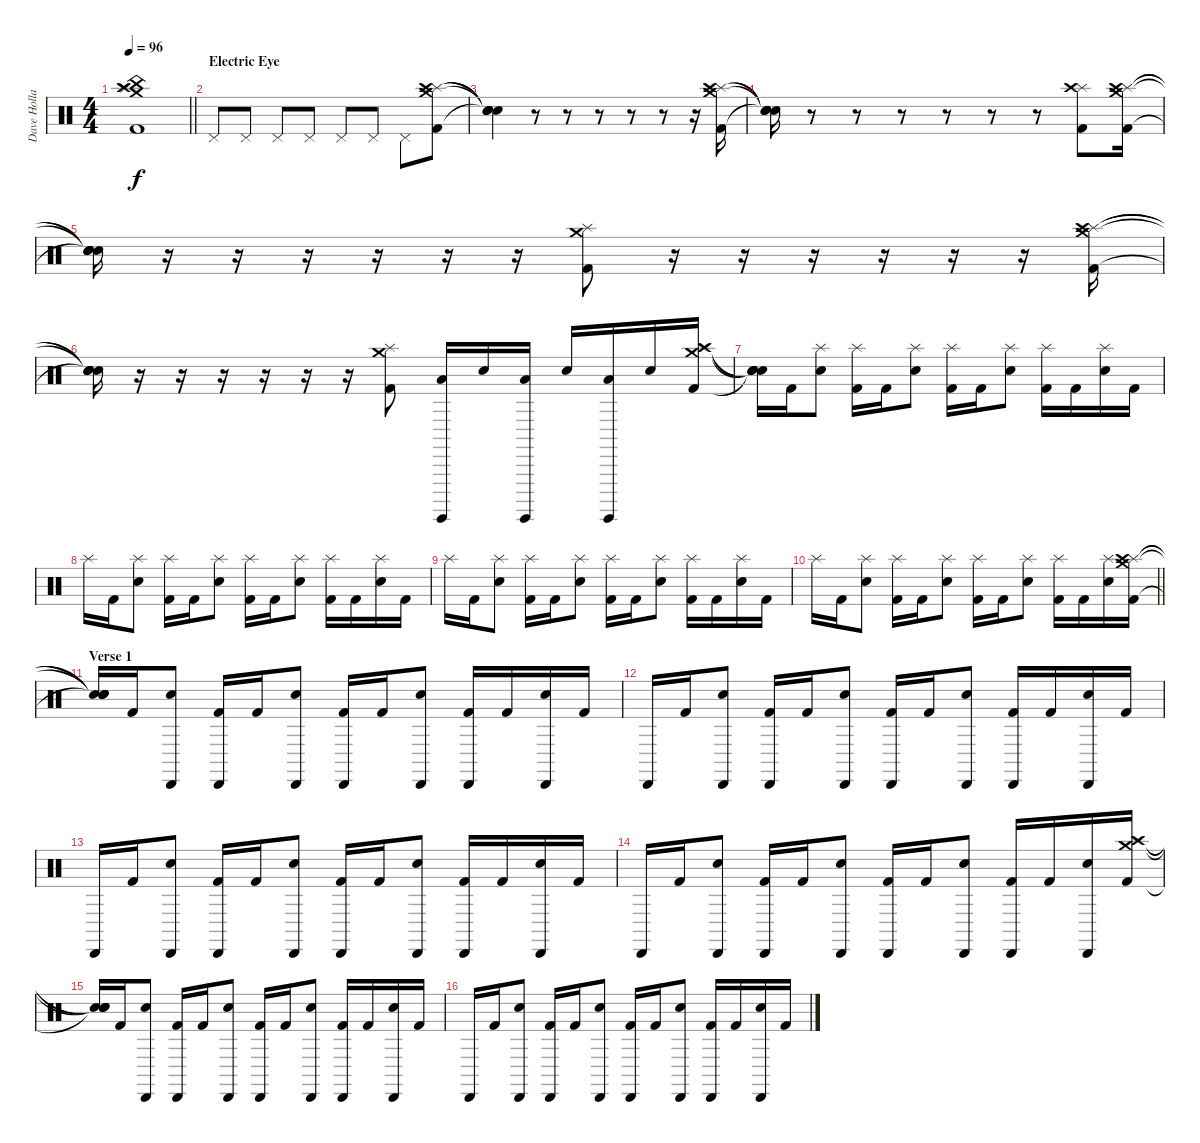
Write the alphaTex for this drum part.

\track ("Dave Holland" "Dave Holla") {instrument percussion}
\staff {score}
\articulation defaults
\ts (4 4)
\tempo 96
\clef neutral
\barLineRight lightlight
\ks c
("Crash medium (hit)" "Splash (hit)" "Crash high (hit)" "China (hit)" "Kick (hit) 2").1{dy f} |
\section ("" "Electric Eye")
"Pedal Hi-Hat (hit)".8 "Pedal Hi-Hat (hit)".8 "Pedal Hi-Hat (hit)".8 "Pedal Hi-Hat (hit)".8 "Pedal Hi-Hat (hit)".8 "Pedal Hi-Hat (hit)".8 "Pedal Hi-Hat (hit)".8 ("Crash medium (hit)" "Splash (hit)" "Crash high (hit)" "Kick (hit) 2").8 |
("Snare (hit)"{t} "Snare (hit)"{t} "Snare (hit)"{t} "Snare (hit)"{t}).4 r.8 r.8 r.8 r.8 r.8 r.16 ("Crash medium (hit)" "Splash (hit)" "Crash high (hit)" "Kick (hit) 2").16 |
("Snare (hit)"{t} "Snare (hit)"{t} "Snare (hit)"{t} "Snare (hit)"{t}).16 r.8 r.8 r.8 r.8 r.8 r.8 ("Splash (hit)" "Crash high (hit)" "Kick (hit) 2").8 ("Crash medium (hit)" "Splash (hit)" "Crash high (hit)" "Kick (hit) 2").16 |
("Snare (hit)"{t} "Snare (hit)"{t} "Snare (hit)"{t} "Snare (hit)"{t}).16 r.16 r.16 r.16 r.16 r.16 r.16 ("Crash medium (hit)" "Splash (hit)" "Kick (hit) 2").8 r.16 r.16 r.16 r.16 r.16 r.16 ("Crash medium (hit)" "Splash (hit)" "Crash high (hit)" "Kick (hit) 2").16 |
("Snare (hit)"{t} "Snare (hit)"{t} "Snare (hit)"{t} "Snare (hit)"{t}).16 r.16 r.16 r.16 r.16 r.16 r.16 ("Crash medium (hit)" "Splash (hit)" "Kick (hit) 2").8 ("Surdo (hit)" "Low Floor Tom (hit)").16 "Snare (hit) 2".16 ("Surdo (hit)" "Low Floor Tom (hit)").16 "Snare (hit) 2".16 ("Surdo (hit)" "Low Floor Tom (hit)").16 "Snare (hit) 2".16 ("Crash medium (hit)" "Splash (hit)" "Crash high (hit)" "Kick (hit) 2").16 |
("Snare (hit)"{t} "Snare (hit)"{t} "Snare (hit)"{t} "Snare (hit)"{t}).16 "Kick (hit) 2".16 ("Splash (hit)" "Snare (hit) 2").8 ("Splash (hit)" "Kick (hit) 2").16 "Kick (hit) 2".16 ("Splash (hit)" "Snare (hit) 2").8 ("Splash (hit)" "Kick (hit) 2").16 "Kick (hit) 2".16 ("Splash (hit)" "Snare (hit) 2").8 ("Splash (hit)" "Kick (hit) 2").16 "Kick (hit) 2".16 ("Splash (hit)" "Snare (hit) 2").16 "Kick (hit) 2".16 |
"Splash (hit)".16 "Kick (hit) 2".16 ("Splash (hit)" "Snare (hit) 2").8 ("Splash (hit)" "Kick (hit) 2").16 "Kick (hit) 2".16 ("Splash (hit)" "Snare (hit) 2").8 ("Splash (hit)" "Kick (hit) 2").16 "Kick (hit) 2".16 ("Splash (hit)" "Snare (hit) 2").8 ("Splash (hit)" "Kick (hit) 2").16 "Kick (hit) 2".16 ("Splash (hit)" "Snare (hit) 2").16 "Kick (hit) 2".16 |
"Splash (hit)".16 "Kick (hit) 2".16 ("Splash (hit)" "Snare (hit) 2").8 ("Splash (hit)" "Kick (hit) 2").16 "Kick (hit) 2".16 ("Splash (hit)" "Snare (hit) 2").8 ("Splash (hit)" "Kick (hit) 2").16 "Kick (hit) 2".16 ("Splash (hit)" "Snare (hit) 2").8 ("Splash (hit)" "Kick (hit) 2").16 "Kick (hit) 2".16 ("Splash (hit)" "Snare (hit) 2").16 "Kick (hit) 2".16 |
\barLineRight lightlight "Splash (hit)".16 "Kick (hit) 2".16
("Splash (hit)" "Snare (hit) 2").8 ("Splash (hit)" "Kick (hit) 2").16 "Kick (hit) 2".16 ("Splash (hit)" "Snare (hit) 2").8 ("Splash (hit)" "Kick (hit) 2").16 "Kick (hit) 2".16 ("Splash (hit)" "Snare (hit) 2").8 ("Splash (hit)" "Kick (hit) 2").16 "Kick (hit) 2".16 ("Splash (hit)" "Snare (hit) 2").16 ("Crash medium (hit)" "Splash (hit)" "Crash high (hit)" "Kick (hit) 2").16 |
\section ("" "Verse 1")
("Snare (hit)"{t} "Snare (hit)"{t} "Snare (hit)"{t} "Snare (hit)"{t}).16 "Kick (hit) 2".16 ("Cabasa (hit)" "Snare (hit) 2").8 ("Cabasa (hit)" "Kick (hit) 2").16 "Kick (hit) 2".16 ("Cabasa (hit)" "Snare (hit) 2").8 ("Cabasa (hit)" "Kick (hit) 2").16 "Kick (hit) 2".16 ("Cabasa (hit)" "Snare (hit) 2").8 ("Cabasa (hit)" "Kick (hit) 2").16 "Kick (hit) 2".16 ("Cabasa (hit)" "Snare (hit) 2").16 "Kick (hit) 2".16 |
"Cabasa (hit)".16 "Kick (hit) 2".16 ("Cabasa (hit)" "Snare (hit) 2").8 ("Cabasa (hit)" "Kick (hit) 2").16 "Kick (hit) 2".16 ("Cabasa (hit)" "Snare (hit) 2").8 ("Cabasa (hit)" "Kick (hit) 2").16 "Kick (hit) 2".16 ("Cabasa (hit)" "Snare (hit) 2").8 ("Cabasa (hit)" "Kick (hit) 2").16 "Kick (hit) 2".16 ("Cabasa (hit)" "Snare (hit) 2").16 "Kick (hit) 2".16 |
"Cabasa (hit)".16 "Kick (hit) 2".16 ("Cabasa (hit)" "Snare (hit) 2").8 ("Cabasa (hit)" "Kick (hit) 2").16 "Kick (hit) 2".16 ("Cabasa (hit)" "Snare (hit) 2").8 ("Cabasa (hit)" "Kick (hit) 2").16 "Kick (hit) 2".16 ("Cabasa (hit)" "Snare (hit) 2").8 ("Cabasa (hit)" "Kick (hit) 2").16 "Kick (hit) 2".16 ("Cabasa (hit)" "Snare (hit) 2").16 "Kick (hit) 2".16 |
"Cabasa (hit)".16 "Kick (hit) 2".16 ("Cabasa (hit)" "Snare (hit) 2").8 ("Cabasa (hit)" "Kick (hit) 2").16 "Kick (hit) 2".16 ("Cabasa (hit)" "Snare (hit) 2").8 ("Cabasa (hit)" "Kick (hit) 2").16 "Kick (hit) 2".16 ("Cabasa (hit)" "Snare (hit) 2").8 ("Cabasa (hit)" "Kick (hit) 2").16 "Kick (hit) 2".16 ("Cabasa (hit)" "Snare (hit) 2").16 ("Crash medium (hit)" "Splash (hit)" "Crash high (hit)" "Kick (hit) 2").16 |
("Snare (hit)"{t} "Snare (hit)"{t} "Snare (hit)"{t} "Snare (hit)"{t}).16 "Kick (hit) 2".16 ("Cabasa (hit)" "Snare (hit) 2").8 ("Cabasa (hit)" "Kick (hit) 2").16 "Kick (hit) 2".16 ("Cabasa (hit)" "Snare (hit) 2").8 ("Cabasa (hit)" "Kick (hit) 2").16 "Kick (hit) 2".16 ("Cabasa (hit)" "Snare (hit) 2").8 ("Cabasa (hit)" "Kick (hit) 2").16 "Kick (hit) 2".16 ("Cabasa (hit)" "Snare (hit) 2").16 "Kick (hit) 2".16 |
"Cabasa (hit)".16 "Kick (hit) 2".16 ("Cabasa (hit)" "Snare (hit) 2").8 ("Cabasa (hit)" "Kick (hit) 2").16 "Kick (hit) 2".16 ("Cabasa (hit)" "Snare (hit) 2").8 ("Cabasa (hit)" "Kick (hit) 2").16 "Kick (hit) 2".16 ("Cabasa (hit)" "Snare (hit) 2").8 ("Cabasa (hit)" "Kick (hit) 2").16 "Kick (hit) 2".16 ("Cabasa (hit)" "Snare (hit) 2").16 "Kick (hit) 2".16
